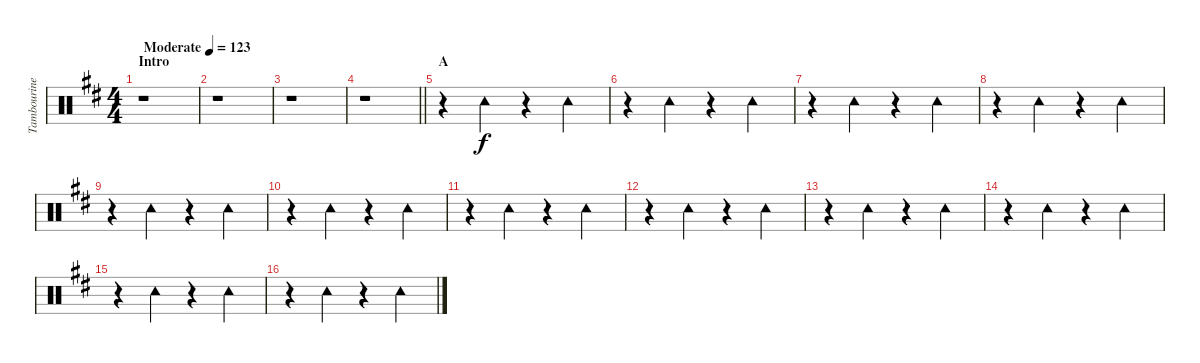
\track ("Tambourine" "Tambourine") {instrument percussion}
\staff {score}
\articulation defaults
\ts (4 4)
\section ("" "Intro")
\tempo (123 "Moderate")
\clef neutral
\ks d
r.1{dy f} |
r.1 |
r.1 |
\barLineRight lightlight
r.1 |
\section ("" "A")
r.4 "Tambourine (hit)".4 r.4 "Tambourine (hit)".4 |
r.4 "Tambourine (hit)".4 r.4 "Tambourine (hit)".4 |
r.4 "Tambourine (hit)".4 r.4 "Tambourine (hit)".4 |
r.4 "Tambourine (hit)".4 r.4 "Tambourine (hit)".4 |
r.4 "Tambourine (hit)".4 r.4 "Tambourine (hit)".4 |
r.4 "Tambourine (hit)".4 r.4 "Tambourine (hit)".4 |
r.4 "Tambourine (hit)".4 r.4 "Tambourine (hit)".4 |
r.4 "Tambourine (hit)".4 r.4 "Tambourine (hit)".4 |
r.4 "Tambourine (hit)".4 r.4 "Tambourine (hit)".4 |
r.4 "Tambourine (hit)".4 r.4 "Tambourine (hit)".4 |
r.4 "Tambourine (hit)".4 r.4 "Tambourine (hit)".4 |
r.4 "Tambourine (hit)".4 r.4 "Tambourine (hit)".4
